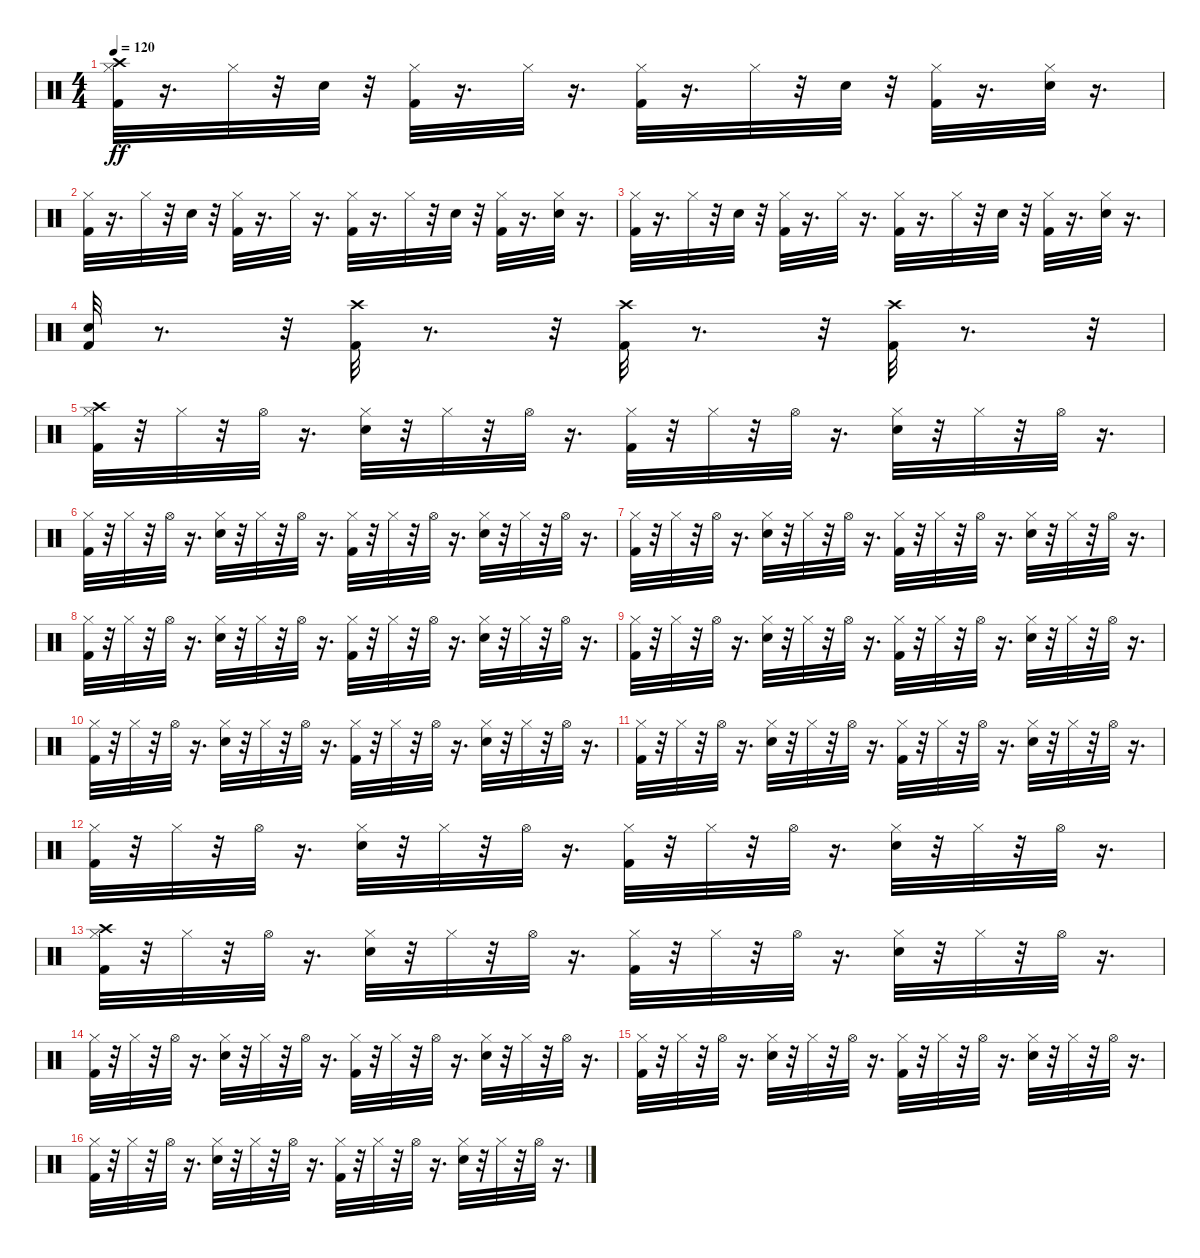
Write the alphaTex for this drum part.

\track "" {instrument percussion}
\staff {score}
\articulation defaults
\ts (4 4)
\tempo 120
\clef neutral
\ks c
("Kick (hit) 2" "Hi-Hat (closed)" "Crash high (hit)").32{dy ff} r.16{d} "Hi-Hat (closed)".32 r.32 "Snare (hit) 2".32 r.32 ("Kick (hit) 2" "Hi-Hat (closed)").32 r.16{d} "Hi-Hat (closed)".32 r.16{d} ("Kick (hit) 2" "Hi-Hat (closed)").32 r.16{d} "Hi-Hat (closed)".32 r.32 "Snare (hit) 2".32 r.32 ("Kick (hit) 2" "Hi-Hat (closed)").32 r.16{d} ("Snare (hit) 2" "Hi-Hat (closed)").32 r.16{d} |
("Kick (hit) 2" "Hi-Hat (closed)").32 r.16{d} "Hi-Hat (closed)".32 r.32 "Snare (hit) 2".32 r.32 ("Kick (hit) 2" "Hi-Hat (closed)").32 r.16{d} "Hi-Hat (closed)".32 r.16{d} ("Kick (hit) 2" "Hi-Hat (closed)").32 r.16{d} "Hi-Hat (closed)".32 r.32 "Snare (hit) 2".32 r.32 ("Kick (hit) 2" "Hi-Hat (closed)").32 r.16{d} ("Snare (hit) 2" "Hi-Hat (closed)").32 r.16{d} |
("Kick (hit) 2" "Hi-Hat (closed)").32 r.16{d} "Hi-Hat (closed)".32 r.32 "Snare (hit) 2".32 r.32 ("Kick (hit) 2" "Hi-Hat (closed)").32 r.16{d} "Hi-Hat (closed)".32 r.16{d} ("Kick (hit) 2" "Hi-Hat (closed)").32 r.16{d} "Hi-Hat (closed)".32 r.32 "Snare (hit) 2".32 r.32 ("Kick (hit) 2" "Hi-Hat (closed)").32 r.16{d} ("Snare (hit) 2" "Hi-Hat (closed)").32 r.16{d} |
("Kick (hit) 2" "Snare (hit) 2").32 r.8{d} r.32 ("Kick (hit) 2" "Crash high (hit)").32 r.8{d} r.32 ("Kick (hit) 2" "Crash high (hit)").32 r.8{d} r.32 ("Crash high (hit)" "Kick (hit) 2").32 r.8{d} r.32 |
("Kick (hit) 2" "Hi-Hat (closed)" "Crash high (hit)").32 r.32 "Hi-Hat (closed)".32 r.32 "Hi-Hat (open)".32 r.16{d} ("Snare (hit) 2" "Hi-Hat (closed)").32 r.32 "Hi-Hat (closed)".32 r.32 "Hi-Hat (open)".32 r.16{d} ("Kick (hit) 2" "Hi-Hat (closed)").32 r.32 "Hi-Hat (closed)".32 r.32 "Hi-Hat (open)".32 r.16{d} ("Snare (hit) 2" "Hi-Hat (closed)").32 r.32 "Hi-Hat (closed)".32 r.32 "Hi-Hat (open)".32 r.16{d} |
("Kick (hit) 2" "Hi-Hat (closed)").32 r.32 "Hi-Hat (closed)".32 r.32 "Hi-Hat (open)".32 r.16{d} ("Snare (hit) 2" "Hi-Hat (closed)").32 r.32 "Hi-Hat (closed)".32 r.32 "Hi-Hat (open)".32 r.16{d} ("Kick (hit) 2" "Hi-Hat (closed)").32 r.32 "Hi-Hat (closed)".32 r.32 "Hi-Hat (open)".32 r.16{d} ("Snare (hit) 2" "Hi-Hat (closed)").32 r.32 "Hi-Hat (closed)".32 r.32 "Hi-Hat (open)".32 r.16{d} |
("Kick (hit) 2" "Hi-Hat (closed)").32 r.32 "Hi-Hat (closed)".32 r.32 "Hi-Hat (open)".32 r.16{d} ("Snare (hit) 2" "Hi-Hat (closed)").32 r.32 "Hi-Hat (closed)".32 r.32 "Hi-Hat (open)".32 r.16{d} ("Kick (hit) 2" "Hi-Hat (closed)").32 r.32 "Hi-Hat (closed)".32 r.32 "Hi-Hat (open)".32 r.16{d} ("Snare (hit) 2" "Hi-Hat (closed)").32 r.32 "Hi-Hat (closed)".32 r.32 "Hi-Hat (open)".32 r.16{d} |
("Kick (hit) 2" "Hi-Hat (closed)").32 r.32 "Hi-Hat (closed)".32 r.32 "Hi-Hat (open)".32 r.16{d} ("Snare (hit) 2" "Hi-Hat (closed)").32 r.32 "Hi-Hat (closed)".32 r.32 "Hi-Hat (open)".32 r.16{d} ("Kick (hit) 2" "Hi-Hat (closed)").32 r.32 "Hi-Hat (closed)".32 r.32 "Hi-Hat (open)".32 r.16{d} ("Snare (hit) 2" "Hi-Hat (closed)").32 r.32 "Hi-Hat (closed)".32 r.32 "Hi-Hat (open)".32 r.16{d} |
("Kick (hit) 2" "Hi-Hat (closed)").32 r.32 "Hi-Hat (closed)".32 r.32 "Hi-Hat (open)".32 r.16{d} ("Snare (hit) 2" "Hi-Hat (closed)").32 r.32 "Hi-Hat (closed)".32 r.32 "Hi-Hat (open)".32 r.16{d} ("Kick (hit) 2" "Hi-Hat (closed)").32 r.32 "Hi-Hat (closed)".32 r.32 "Hi-Hat (open)".32 r.16{d} ("Snare (hit) 2" "Hi-Hat (closed)").32 r.32 "Hi-Hat (closed)".32 r.32 "Hi-Hat (open)".32 r.16{d} |
("Kick (hit) 2" "Hi-Hat (closed)").32 r.32 "Hi-Hat (closed)".32 r.32 "Hi-Hat (open)".32 r.16{d} ("Snare (hit) 2" "Hi-Hat (closed)").32 r.32 "Hi-Hat (closed)".32 r.32 "Hi-Hat (open)".32 r.16{d} ("Kick (hit) 2" "Hi-Hat (closed)").32 r.32 "Hi-Hat (closed)".32 r.32 "Hi-Hat (open)".32 r.16{d} ("Snare (hit) 2" "Hi-Hat (closed)").32 r.32 "Hi-Hat (closed)".32 r.32 "Hi-Hat (open)".32 r.16{d} |
("Kick (hit) 2" "Hi-Hat (closed)").32 r.32 "Hi-Hat (closed)".32 r.32 "Hi-Hat (open)".32 r.16{d} ("Snare (hit) 2" "Hi-Hat (closed)").32 r.32 "Hi-Hat (closed)".32 r.32 "Hi-Hat (open)".32 r.16{d} ("Kick (hit) 2" "Hi-Hat (closed)").32 r.32 "Hi-Hat (closed)".32 r.32 "Hi-Hat (open)".32 r.16{d} ("Snare (hit) 2" "Hi-Hat (closed)").32 r.32 "Hi-Hat (closed)".32 r.32 "Hi-Hat (open)".32 r.16{d} |
("Kick (hit) 2" "Hi-Hat (closed)").32 r.32 "Hi-Hat (closed)".32 r.32 "Hi-Hat (open)".32 r.16{d} ("Snare (hit) 2" "Hi-Hat (closed)").32 r.32 "Hi-Hat (closed)".32 r.32 "Hi-Hat (open)".32 r.16{d} ("Kick (hit) 2" "Hi-Hat (closed)").32 r.32 "Hi-Hat (closed)".32 r.32 "Hi-Hat (open)".32 r.16{d} ("Snare (hit) 2" "Hi-Hat (closed)").32 r.32 "Hi-Hat (closed)".32 r.32 "Hi-Hat (open)".32 r.16{d} |
("Kick (hit) 2" "Hi-Hat (closed)" "Crash high (hit)").32 r.32 "Hi-Hat (closed)".32 r.32 "Hi-Hat (open)".32 r.16{d} ("Snare (hit) 2" "Hi-Hat (closed)").32 r.32 "Hi-Hat (closed)".32 r.32 "Hi-Hat (open)".32 r.16{d} ("Kick (hit) 2" "Hi-Hat (closed)").32 r.32 "Hi-Hat (closed)".32 r.32 "Hi-Hat (open)".32 r.16{d} ("Snare (hit) 2" "Hi-Hat (closed)").32 r.32 "Hi-Hat (closed)".32 r.32 "Hi-Hat (open)".32 r.16{d} |
("Kick (hit) 2" "Hi-Hat (closed)").32 r.32 "Hi-Hat (closed)".32 r.32 "Hi-Hat (open)".32 r.16{d} ("Snare (hit) 2" "Hi-Hat (closed)").32 r.32 "Hi-Hat (closed)".32 r.32 "Hi-Hat (open)".32 r.16{d} ("Kick (hit) 2" "Hi-Hat (closed)").32 r.32 "Hi-Hat (closed)".32 r.32 "Hi-Hat (open)".32 r.16{d} ("Snare (hit) 2" "Hi-Hat (closed)").32 r.32 "Hi-Hat (closed)".32 r.32 "Hi-Hat (open)".32 r.16{d} |
("Kick (hit) 2" "Hi-Hat (closed)").32 r.32 "Hi-Hat (closed)".32 r.32 "Hi-Hat (open)".32 r.16{d} ("Snare (hit) 2" "Hi-Hat (closed)").32 r.32 "Hi-Hat (closed)".32 r.32 "Hi-Hat (open)".32 r.16{d} ("Kick (hit) 2" "Hi-Hat (closed)").32 r.32 "Hi-Hat (closed)".32 r.32 "Hi-Hat (open)".32 r.16{d} ("Snare (hit) 2" "Hi-Hat (closed)").32 r.32 "Hi-Hat (closed)".32 r.32 "Hi-Hat (open)".32 r.16{d} |
("Kick (hit) 2" "Hi-Hat (closed)").32 r.32 "Hi-Hat (closed)".32 r.32 "Hi-Hat (open)".32 r.16{d} ("Snare (hit) 2" "Hi-Hat (closed)").32 r.32 "Hi-Hat (closed)".32 r.32 "Hi-Hat (open)".32 r.16{d} ("Kick (hit) 2" "Hi-Hat (closed)").32 r.32 "Hi-Hat (closed)".32 r.32 "Hi-Hat (open)".32 r.16{d} ("Snare (hit) 2" "Hi-Hat (closed)").32 r.32 "Hi-Hat (closed)".32 r.32 "Hi-Hat (open)".32 r.16{d}
